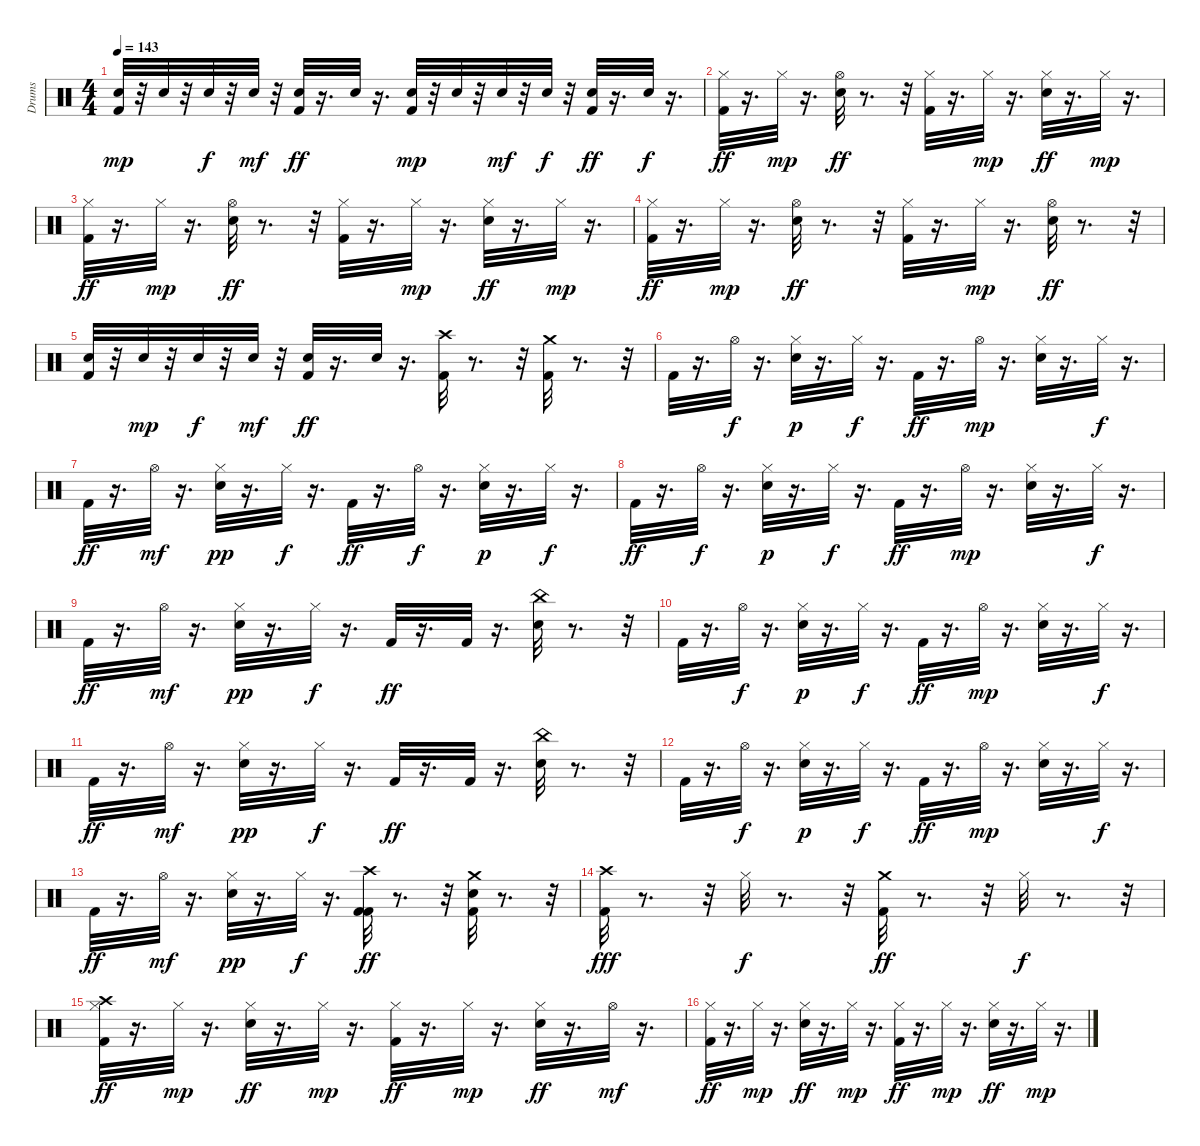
\track ("Drums" "Drums") {instrument percussion}
\staff {score}
\articulation defaults
\ts (4 4)
\tempo 143
\clef neutral
\ks c
("Kick (hit) 2" "Snare (hit) 2").32{dy mp} r.32 "Snare (hit) 2".32 r.32 "Snare (hit) 2".32{dy f} r.32 "Snare (hit) 2".32{dy mf} r.32 ("Kick (hit) 2" "Snare (hit) 2").32{dy ff} r.16{d} "Snare (hit) 2".32 r.16{d} ("Kick (hit) 2" "Snare (hit) 2").32{dy mp} r.32 "Snare (hit) 2".32 r.32 "Snare (hit) 2".32{dy mf} r.32 "Snare (hit) 2".32{dy f} r.32 ("Kick (hit) 2" "Snare (hit) 2").32{dy ff} r.16{d} "Snare (hit) 2".32{dy f} r.16{d} |
("Kick (hit) 2" "Hi-Hat (closed)").32{dy ff} r.16{d} "Hi-Hat (closed)".32{dy mp} r.16{d} ("Snare (hit) 2" "Hi-Hat (open)").32{dy ff} r.8{d} r.32 ("Kick (hit) 2" "Hi-Hat (closed)").32 r.16{d} "Hi-Hat (closed)".32{dy mp} r.16{d} ("Snare (hit) 2" "Hi-Hat (closed)").32{dy ff} r.16{d} "Hi-Hat (closed)".32{dy mp} r.16{d} |
("Kick (hit) 2" "Hi-Hat (closed)").32{dy ff} r.16{d} "Hi-Hat (closed)".32{dy mp} r.16{d} ("Snare (hit) 2" "Hi-Hat (open)").32{dy ff} r.8{d} r.32 ("Kick (hit) 2" "Hi-Hat (closed)").32 r.16{d} "Hi-Hat (closed)".32{dy mp} r.16{d} ("Snare (hit) 2" "Hi-Hat (closed)").32{dy ff} r.16{d} "Hi-Hat (closed)".32{dy mp} r.16{d} |
("Kick (hit) 2" "Hi-Hat (closed)").32{dy ff} r.16{d} "Hi-Hat (closed)".32{dy mp} r.16{d} ("Snare (hit) 2" "Hi-Hat (open)").32{dy ff} r.8{d} r.32 ("Kick (hit) 2" "Hi-Hat (closed)").32 r.16{d} "Hi-Hat (closed)".32{dy mp} r.16{d} ("Snare (hit) 2" "Hi-Hat (open)").32{dy ff} r.8{d} r.32 |
("Snare (hit) 2" "Kick (hit) 2").32 r.32 "Snare (hit) 2".32{dy mp} r.32 "Snare (hit) 2".32{dy f} r.32 "Snare (hit) 2".32{dy mf} r.32 ("Kick (hit) 2" "Snare (hit) 2").32{dy ff} r.16{d} "Snare (hit) 2".32 r.16{d} ("Kick (hit) 2" "Crash high (hit)").32 r.8{d} r.32 ("Kick (hit) 2" "Crash medium (hit)").32 r.8{d} r.32 |
"Kick (hit) 2".32 r.16{d} "Hi-Hat (open)".32{dy f} r.16{d} ("Snare (hit) 2" "Hi-Hat (closed)").32{dy p} r.16{d} "Hi-Hat (closed)".32{dy f} r.16{d} "Kick (hit) 2".32{dy ff} r.16{d} "Hi-Hat (open)".32{dy mp} r.16{d} ("Snare (hit) 2" "Hi-Hat (closed)").32 r.16{d} "Hi-Hat (closed)".32{dy f} r.16{d} |
"Kick (hit) 2".32{dy ff} r.16{d} "Hi-Hat (open)".32{dy mf} r.16{d} ("Snare (hit) 2" "Hi-Hat (closed)").32{dy pp} r.16{d} "Hi-Hat (closed)".32{dy f} r.16{d} "Kick (hit) 2".32{dy ff} r.16{d} "Hi-Hat (open)".32{dy f} r.16{d} ("Snare (hit) 2" "Hi-Hat (closed)").32{dy p} r.16{d} "Hi-Hat (closed)".32{dy f} r.16{d} |
"Kick (hit) 2".32{dy ff} r.16{d} "Hi-Hat (open)".32{dy f} r.16{d} ("Snare (hit) 2" "Hi-Hat (closed)").32{dy p} r.16{d} "Hi-Hat (closed)".32{dy f} r.16{d} "Kick (hit) 2".32{dy ff} r.16{d} "Hi-Hat (open)".32{dy mp} r.16{d} ("Snare (hit) 2" "Hi-Hat (closed)").32 r.16{d} "Hi-Hat (closed)".32{dy f} r.16{d} |
"Kick (hit) 2".32{dy ff} r.16{d} "Hi-Hat (open)".32{dy mf} r.16{d} ("Snare (hit) 2" "Hi-Hat (closed)").32{dy pp} r.16{d} "Hi-Hat (closed)".32{dy f} r.16{d} "Kick (hit) 2".32{dy ff} r.16{d} "Kick (hit) 2".32 r.16{d} ("China (hit)" "Snare (hit) 2").32 r.8{d} r.32 |
"Kick (hit) 2".32 r.16{d} "Hi-Hat (open)".32{dy f} r.16{d} ("Snare (hit) 2" "Hi-Hat (closed)").32{dy p} r.16{d} "Hi-Hat (closed)".32{dy f} r.16{d} "Kick (hit) 2".32{dy ff} r.16{d} "Hi-Hat (open)".32{dy mp} r.16{d} ("Snare (hit) 2" "Hi-Hat (closed)").32 r.16{d} "Hi-Hat (closed)".32{dy f} r.16{d} |
"Kick (hit) 2".32{dy ff} r.16{d} "Hi-Hat (open)".32{dy mf} r.16{d} ("Snare (hit) 2" "Hi-Hat (closed)").32{dy pp} r.16{d} "Hi-Hat (closed)".32{dy f} r.16{d} "Kick (hit) 2".32{dy ff} r.16{d} "Kick (hit) 2".32 r.16{d} ("China (hit)" "Snare (hit) 2").32 r.8{d} r.32 |
"Kick (hit) 2".32 r.16{d} "Hi-Hat (open)".32{dy f} r.16{d} ("Snare (hit) 2" "Hi-Hat (closed)").32{dy p} r.16{d} "Hi-Hat (closed)".32{dy f} r.16{d} "Kick (hit) 2".32{dy ff} r.16{d} "Hi-Hat (open)".32{dy mp} r.16{d} ("Snare (hit) 2" "Hi-Hat (closed)").32 r.16{d} "Hi-Hat (closed)".32{dy f} r.16{d} |
"Kick (hit) 2".32{dy ff} r.16{d} "Hi-Hat (open)".32{dy mf} r.16{d} ("Snare (hit) 2" "Hi-Hat (closed)").32{dy pp} r.16{d} "Hi-Hat (closed)".32{dy f} r.16{d} ("Kick (hit) 2" "Kick (hit) 2" "Crash high (hit)").32{dy ff} r.8{d} r.32 ("Kick (hit) 2" "Crash medium (hit)" "Snare (hit) 2").32 r.8{d} r.32 |
("Kick (hit) 2" "Crash high (hit)").32{dy fff} r.8{d} r.32 "Hi-Hat (closed)".32{dy f} r.8{d} r.32 ("Kick (hit) 2" "Crash medium (hit)").32{dy ff} r.8{d} r.32 "Hi-Hat (closed)".32{dy f} r.8{d} r.32 |
("Kick (hit) 2" "Crash high (hit)" "Hi-Hat (closed)").32{dy ff} r.16{d} "Hi-Hat (closed)".32{dy mp} r.16{d} ("Snare (hit) 2" "Hi-Hat (closed)").32{dy ff} r.16{d} "Hi-Hat (closed)".32{dy mp} r.16{d} ("Kick (hit) 2" "Hi-Hat (closed)").32{dy ff} r.16{d} "Hi-Hat (closed)".32{dy mp} r.16{d} ("Snare (hit) 2" "Hi-Hat (closed)").32{dy ff} r.16{d} "Hi-Hat (open)".32{dy mf} r.16{d} |
("Kick (hit) 2" "Hi-Hat (closed)").32{dy ff} r.16{d} "Hi-Hat (closed)".32{dy mp} r.16{d} ("Snare (hit) 2" "Hi-Hat (closed)").32{dy ff} r.16{d} "Hi-Hat (closed)".32{dy mp} r.16{d} ("Kick (hit) 2" "Hi-Hat (closed)").32{dy ff} r.16{d} "Hi-Hat (closed)".32{dy mp} r.16{d} ("Snare (hit) 2" "Hi-Hat (closed)").32{dy ff} r.16{d} "Hi-Hat (closed)".32{dy mp} r.16{d}
